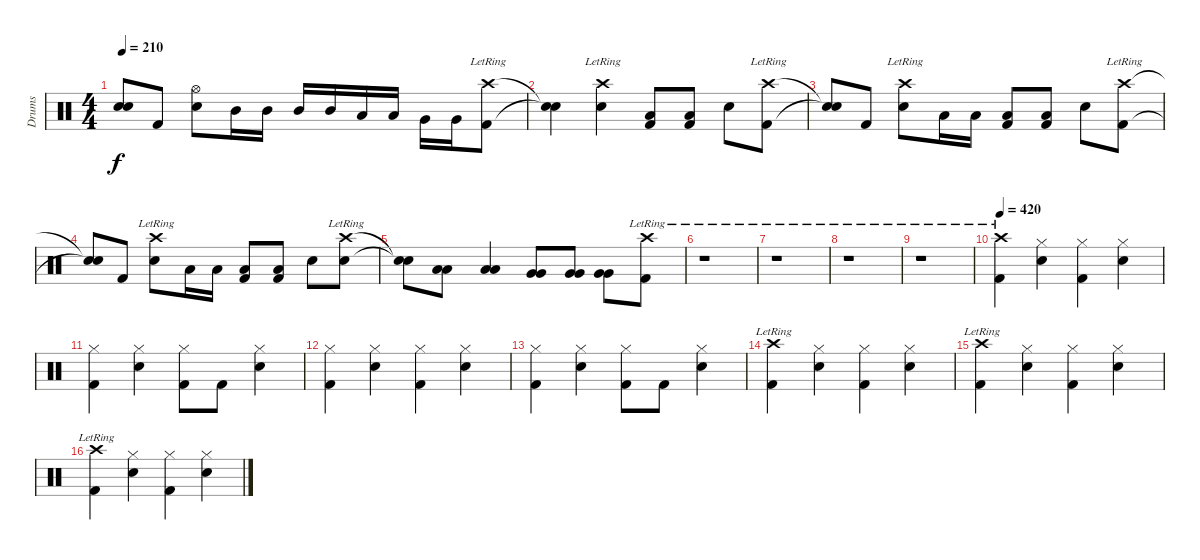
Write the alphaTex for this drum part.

\track ("Drums" "Drums") {instrument percussion}
\staff {score}
\articulation defaults
\ts (4 4)
\tempo 210
\clef neutral
\ks c
("Snare (hit)"{t} "Snare (hit)"{t}).8{dy f} "Kick (hit) 2".8 ("Hi-Hat (open)" "Snare (hit) 2").8 "Mid Tom (hit)".16 "Mid Tom (hit)".16 "Mid Tom (hit)".16 "Mid Tom (hit)".16 "Low Tom (hit)".16 "Low Tom (hit)".16 "Very Low Tom (hit)".16 "Very Low Tom (hit)".16 ("Crash high (hit)"{lr} "Kick (hit) 2").8 |
("Snare (hit)"{t} "Snare (hit)"{t}).4 ("Crash high (hit)"{lr} "Snare (hit) 2").4 ("Low Floor Tom (hit)" "Kick (hit) 2").8 ("Low Floor Tom (hit)" "Kick (hit) 2").8 "Snare (hit) 2".8 ("Crash high (hit)"{lr} "Kick (hit) 2").8 |
("Snare (hit)"{t} "Snare (hit)"{t}).8 "Kick (hit) 2".8 ("Crash high (hit)"{lr} "Snare (hit) 2").8 "Low Floor Tom (hit)".16 "Low Floor Tom (hit)".16 ("Low Floor Tom (hit)" "Kick (hit) 2").8 ("Low Floor Tom (hit)" "Kick (hit) 2").8 "Snare (hit) 2".8 ("Crash high (hit)"{lr} "Kick (hit) 2").8 |
("Snare (hit)"{t} "Snare (hit)"{t}).8 "Kick (hit) 2".8 ("Crash high (hit)"{lr} "Snare (hit) 2").8 "Low Floor Tom (hit)".16 "Low Floor Tom (hit)".16 ("Low Floor Tom (hit)" "Kick (hit) 2").8 ("Low Floor Tom (hit)" "Kick (hit) 2").8 "Snare (hit) 2".8 ("Crash high (hit)"{lr} "Snare (hit) 2").8 |
("Snare (hit)"{t} "Snare (hit)"{t}).8 ("Low Tom (hit)" "Low Tom (hit)").8 ("Low Tom (hit)" "Low Tom (hit)").4 ("Very Low Tom (hit)" "Very Low Tom (hit)").8 ("Very Low Tom (hit)" "Very Low Tom (hit)").8 ("Very Low Tom (hit)" "Very Low Tom (hit)").8 ("Crash high (hit)"{lr} "Kick (hit) 2").8 |
r.1 |
r.1 |
r.1 |
r.1 |
\tempo 420
("Crash high (hit)"{lr} "Kick (hit) 2").4 ("Hi-Hat (closed)" "Snare (hit) 2").4 ("Hi-Hat (closed)" "Kick (hit) 2").4 ("Hi-Hat (closed)" "Snare (hit) 2").4 |
("Hi-Hat (closed)" "Kick (hit) 2").4 ("Hi-Hat (closed)" "Snare (hit) 2").4 ("Hi-Hat (closed)" "Kick (hit) 2").8 "Kick (hit) 2".8 ("Hi-Hat (closed)" "Snare (hit) 2").4 |
("Hi-Hat (closed)" "Kick (hit) 2").4 ("Hi-Hat (closed)" "Snare (hit) 2").4 ("Hi-Hat (closed)" "Kick (hit) 2").4 ("Hi-Hat (closed)" "Snare (hit) 2").4 |
("Hi-Hat (closed)" "Kick (hit) 2").4 ("Hi-Hat (closed)" "Snare (hit) 2").4 ("Hi-Hat (closed)" "Kick (hit) 2").8 "Kick (hit) 2".8 ("Hi-Hat (closed)" "Snare (hit) 2").4 |
("Crash high (hit)"{lr} "Kick (hit) 2").4 ("Hi-Hat (closed)" "Snare (hit) 2").4 ("Hi-Hat (closed)" "Kick (hit) 2").4 ("Hi-Hat (closed)" "Snare (hit) 2").4 |
("Crash high (hit)"{lr} "Kick (hit) 2").4 ("Hi-Hat (closed)" "Snare (hit) 2").4 ("Hi-Hat (closed)" "Kick (hit) 2").4 ("Hi-Hat (closed)" "Snare (hit) 2").4 |
("Crash high (hit)"{lr} "Kick (hit) 2").4 ("Hi-Hat (closed)" "Snare (hit) 2").4 ("Hi-Hat (closed)" "Kick (hit) 2").4 ("Hi-Hat (closed)" "Snare (hit) 2").4
